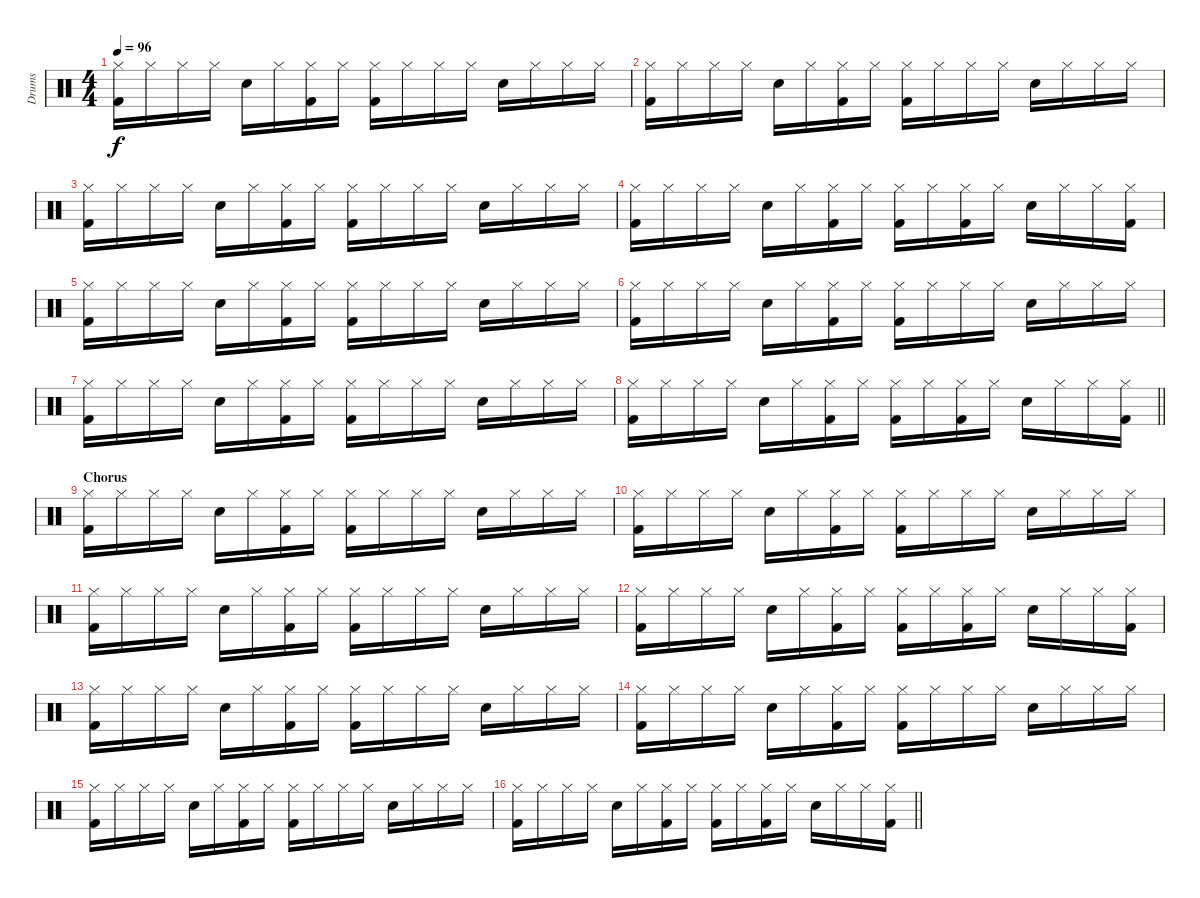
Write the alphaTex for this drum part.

\track ("Drums" "Drums") {instrument percussion}
\staff {score}
\articulation defaults
\ts (4 4)
\tempo 96
\clef neutral
\ks c
("Hi-Hat (closed)" "Kick (hit) 2").16{dy f} "Hi-Hat (closed)".16 "Hi-Hat (closed)".16 "Hi-Hat (closed)".16 "Snare (hit) 2".16 "Hi-Hat (closed)".16 ("Hi-Hat (closed)" "Kick (hit) 2").16 "Hi-Hat (closed)".16 ("Hi-Hat (closed)" "Kick (hit) 2").16 "Hi-Hat (closed)".16 "Hi-Hat (closed)".16 "Hi-Hat (closed)".16 "Snare (hit) 2".16 "Hi-Hat (closed)".16 "Hi-Hat (closed)".16 "Hi-Hat (closed)".16 |
("Hi-Hat (closed)" "Kick (hit) 2").16 "Hi-Hat (closed)".16 "Hi-Hat (closed)".16 "Hi-Hat (closed)".16 "Snare (hit) 2".16 "Hi-Hat (closed)".16 ("Hi-Hat (closed)" "Kick (hit) 2").16 "Hi-Hat (closed)".16 ("Hi-Hat (closed)" "Kick (hit) 2").16 "Hi-Hat (closed)".16 "Hi-Hat (closed)".16 "Hi-Hat (closed)".16 "Snare (hit) 2".16 "Hi-Hat (closed)".16 "Hi-Hat (closed)".16 "Hi-Hat (closed)".16 |
("Hi-Hat (closed)" "Kick (hit) 2").16 "Hi-Hat (closed)".16 "Hi-Hat (closed)".16 "Hi-Hat (closed)".16 "Snare (hit) 2".16 "Hi-Hat (closed)".16 ("Hi-Hat (closed)" "Kick (hit) 2").16 "Hi-Hat (closed)".16 ("Hi-Hat (closed)" "Kick (hit) 2").16 "Hi-Hat (closed)".16 "Hi-Hat (closed)".16 "Hi-Hat (closed)".16 "Snare (hit) 2".16 "Hi-Hat (closed)".16 "Hi-Hat (closed)".16 "Hi-Hat (closed)".16 |
("Hi-Hat (closed)" "Kick (hit) 2").16 "Hi-Hat (closed)".16 "Hi-Hat (closed)".16 "Hi-Hat (closed)".16 "Snare (hit) 2".16 "Hi-Hat (closed)".16 ("Hi-Hat (closed)" "Kick (hit) 2").16 "Hi-Hat (closed)".16 ("Hi-Hat (closed)" "Kick (hit) 2").16 "Hi-Hat (closed)".16 ("Hi-Hat (closed)" "Kick (hit) 2").16 "Hi-Hat (closed)".16 "Snare (hit) 2".16 "Hi-Hat (closed)".16 "Hi-Hat (closed)".16 ("Hi-Hat (closed)" "Kick (hit) 2").16 |
("Hi-Hat (closed)" "Kick (hit) 2").16 "Hi-Hat (closed)".16 "Hi-Hat (closed)".16 "Hi-Hat (closed)".16 "Snare (hit) 2".16 "Hi-Hat (closed)".16 ("Hi-Hat (closed)" "Kick (hit) 2").16 "Hi-Hat (closed)".16 ("Hi-Hat (closed)" "Kick (hit) 2").16 "Hi-Hat (closed)".16 "Hi-Hat (closed)".16 "Hi-Hat (closed)".16 "Snare (hit) 2".16 "Hi-Hat (closed)".16 "Hi-Hat (closed)".16 "Hi-Hat (closed)".16 |
("Hi-Hat (closed)" "Kick (hit) 2").16 "Hi-Hat (closed)".16 "Hi-Hat (closed)".16 "Hi-Hat (closed)".16 "Snare (hit) 2".16 "Hi-Hat (closed)".16 ("Hi-Hat (closed)" "Kick (hit) 2").16 "Hi-Hat (closed)".16 ("Hi-Hat (closed)" "Kick (hit) 2").16 "Hi-Hat (closed)".16 "Hi-Hat (closed)".16 "Hi-Hat (closed)".16 "Snare (hit) 2".16 "Hi-Hat (closed)".16 "Hi-Hat (closed)".16 "Hi-Hat (closed)".16 |
("Hi-Hat (closed)" "Kick (hit) 2").16 "Hi-Hat (closed)".16 "Hi-Hat (closed)".16 "Hi-Hat (closed)".16 "Snare (hit) 2".16 "Hi-Hat (closed)".16 ("Hi-Hat (closed)" "Kick (hit) 2").16 "Hi-Hat (closed)".16 ("Hi-Hat (closed)" "Kick (hit) 2").16 "Hi-Hat (closed)".16 "Hi-Hat (closed)".16 "Hi-Hat (closed)".16 "Snare (hit) 2".16 "Hi-Hat (closed)".16 "Hi-Hat (closed)".16 "Hi-Hat (closed)".16 |
\barLineRight lightlight
("Hi-Hat (closed)" "Kick (hit) 2").16 "Hi-Hat (closed)".16 "Hi-Hat (closed)".16 "Hi-Hat (closed)".16 "Snare (hit) 2".16 "Hi-Hat (closed)".16 ("Hi-Hat (closed)" "Kick (hit) 2").16 "Hi-Hat (closed)".16 ("Hi-Hat (closed)" "Kick (hit) 2").16 "Hi-Hat (closed)".16 ("Hi-Hat (closed)" "Kick (hit) 2").16 "Hi-Hat (closed)".16 "Snare (hit) 2".16 "Hi-Hat (closed)".16 "Hi-Hat (closed)".16 ("Hi-Hat (closed)" "Kick (hit) 2").16 |
\section ("" "Chorus")
("Hi-Hat (closed)" "Kick (hit) 2").16 "Hi-Hat (closed)".16 "Hi-Hat (closed)".16 "Hi-Hat (closed)".16 "Snare (hit) 2".16 "Hi-Hat (closed)".16 ("Hi-Hat (closed)" "Kick (hit) 2").16 "Hi-Hat (closed)".16 ("Hi-Hat (closed)" "Kick (hit) 2").16 "Hi-Hat (closed)".16 "Hi-Hat (closed)".16 "Hi-Hat (closed)".16 "Snare (hit) 2".16 "Hi-Hat (closed)".16 "Hi-Hat (closed)".16 "Hi-Hat (closed)".16 |
("Hi-Hat (closed)" "Kick (hit) 2").16 "Hi-Hat (closed)".16 "Hi-Hat (closed)".16 "Hi-Hat (closed)".16 "Snare (hit) 2".16 "Hi-Hat (closed)".16 ("Hi-Hat (closed)" "Kick (hit) 2").16 "Hi-Hat (closed)".16 ("Hi-Hat (closed)" "Kick (hit) 2").16 "Hi-Hat (closed)".16 "Hi-Hat (closed)".16 "Hi-Hat (closed)".16 "Snare (hit) 2".16 "Hi-Hat (closed)".16 "Hi-Hat (closed)".16 "Hi-Hat (closed)".16 |
("Hi-Hat (closed)" "Kick (hit) 2").16 "Hi-Hat (closed)".16 "Hi-Hat (closed)".16 "Hi-Hat (closed)".16 "Snare (hit) 2".16 "Hi-Hat (closed)".16 ("Hi-Hat (closed)" "Kick (hit) 2").16 "Hi-Hat (closed)".16 ("Hi-Hat (closed)" "Kick (hit) 2").16 "Hi-Hat (closed)".16 "Hi-Hat (closed)".16 "Hi-Hat (closed)".16 "Snare (hit) 2".16 "Hi-Hat (closed)".16 "Hi-Hat (closed)".16 "Hi-Hat (closed)".16 |
("Hi-Hat (closed)" "Kick (hit) 2").16 "Hi-Hat (closed)".16 "Hi-Hat (closed)".16 "Hi-Hat (closed)".16 "Snare (hit) 2".16 "Hi-Hat (closed)".16 ("Hi-Hat (closed)" "Kick (hit) 2").16 "Hi-Hat (closed)".16 ("Hi-Hat (closed)" "Kick (hit) 2").16 "Hi-Hat (closed)".16 ("Hi-Hat (closed)" "Kick (hit) 2").16 "Hi-Hat (closed)".16 "Snare (hit) 2".16 "Hi-Hat (closed)".16 "Hi-Hat (closed)".16 ("Hi-Hat (closed)" "Kick (hit) 2").16 |
("Hi-Hat (closed)" "Kick (hit) 2").16 "Hi-Hat (closed)".16 "Hi-Hat (closed)".16 "Hi-Hat (closed)".16 "Snare (hit) 2".16 "Hi-Hat (closed)".16 ("Hi-Hat (closed)" "Kick (hit) 2").16 "Hi-Hat (closed)".16 ("Hi-Hat (closed)" "Kick (hit) 2").16 "Hi-Hat (closed)".16 "Hi-Hat (closed)".16 "Hi-Hat (closed)".16 "Snare (hit) 2".16 "Hi-Hat (closed)".16 "Hi-Hat (closed)".16 "Hi-Hat (closed)".16 |
("Hi-Hat (closed)" "Kick (hit) 2").16 "Hi-Hat (closed)".16 "Hi-Hat (closed)".16 "Hi-Hat (closed)".16 "Snare (hit) 2".16 "Hi-Hat (closed)".16 ("Hi-Hat (closed)" "Kick (hit) 2").16 "Hi-Hat (closed)".16 ("Hi-Hat (closed)" "Kick (hit) 2").16 "Hi-Hat (closed)".16 "Hi-Hat (closed)".16 "Hi-Hat (closed)".16 "Snare (hit) 2".16 "Hi-Hat (closed)".16 "Hi-Hat (closed)".16 "Hi-Hat (closed)".16 |
("Hi-Hat (closed)" "Kick (hit) 2").16 "Hi-Hat (closed)".16 "Hi-Hat (closed)".16 "Hi-Hat (closed)".16 "Snare (hit) 2".16 "Hi-Hat (closed)".16 ("Hi-Hat (closed)" "Kick (hit) 2").16 "Hi-Hat (closed)".16 ("Hi-Hat (closed)" "Kick (hit) 2").16 "Hi-Hat (closed)".16 "Hi-Hat (closed)".16 "Hi-Hat (closed)".16 "Snare (hit) 2".16 "Hi-Hat (closed)".16 "Hi-Hat (closed)".16 "Hi-Hat (closed)".16 |
\barLineRight lightlight
("Hi-Hat (closed)" "Kick (hit) 2").16 "Hi-Hat (closed)".16 "Hi-Hat (closed)".16 "Hi-Hat (closed)".16 "Snare (hit) 2".16 "Hi-Hat (closed)".16 ("Hi-Hat (closed)" "Kick (hit) 2").16 "Hi-Hat (closed)".16 ("Hi-Hat (closed)" "Kick (hit) 2").16 "Hi-Hat (closed)".16 ("Hi-Hat (closed)" "Kick (hit) 2").16 "Hi-Hat (closed)".16 "Snare (hit) 2".16 "Hi-Hat (closed)".16 "Hi-Hat (closed)".16 ("Hi-Hat (closed)" "Kick (hit) 2").16
